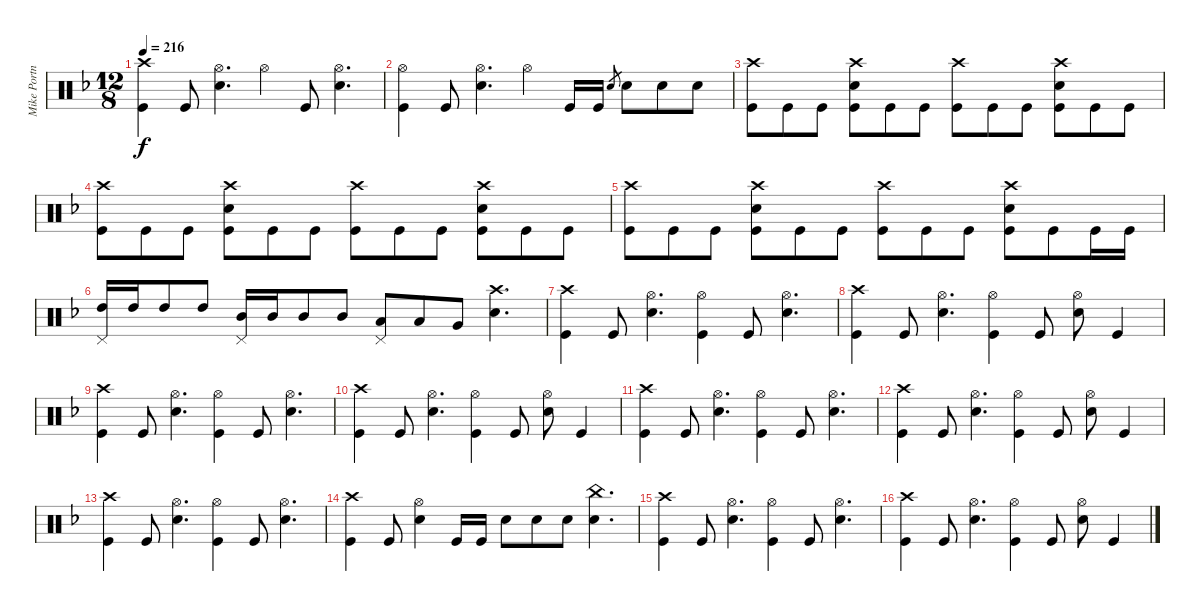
\track ("Mike Portnoy - Drums" "Mike Portn") {instrument percussion}
\staff {score}
\articulation defaults
\ts (12 8)
\tempo 216
\clef neutral
\ks dminor
("Crash high (hit)" "Kick (hit)").4{dy f} "Kick (hit)".8 ("Hi-Hat (open)" "Snare (hit) 2").4{d} "Hi-Hat (open)".4 "Kick (hit)".8 ("Hi-Hat (open)" "Snare (hit) 2").4{d} |
("Hi-Hat (open)" "Kick (hit)").4 "Kick (hit)".8 ("Hi-Hat (open)" "Snare (hit) 2").4{d} "Hi-Hat (open)".4 "Kick (hit)".16 "Kick (hit)".16 "Snare (hit) 2".8{gr} "Snare (hit) 2".8 "Snare (hit) 2".8 "Snare (hit) 2".8 |
("Crash high (hit)" "Kick (hit)").8 "Kick (hit)".8 "Kick (hit)".8 ("Crash high (hit)" "Snare (hit) 2" "Kick (hit)").8 "Kick (hit)".8 "Kick (hit)".8 ("Crash high (hit)" "Kick (hit)").8 "Kick (hit)".8 "Kick (hit)".8 ("Crash high (hit)" "Snare (hit) 2" "Kick (hit)").8 "Kick (hit)".8 "Kick (hit)".8 |
("Crash high (hit)" "Kick (hit)").8 "Kick (hit)".8 "Kick (hit)".8 ("Crash high (hit)" "Snare (hit) 2" "Kick (hit)").8 "Kick (hit)".8 "Kick (hit)".8 ("Crash high (hit)" "Kick (hit)").8 "Kick (hit)".8 "Kick (hit)".8 ("Crash high (hit)" "Snare (hit) 2" "Kick (hit)").8 "Kick (hit)".8 "Kick (hit)".8 |
("Crash high (hit)" "Kick (hit)").8 "Kick (hit)".8 "Kick (hit)".8 ("Crash high (hit)" "Snare (hit) 2" "Kick (hit)").8 "Kick (hit)".8 "Kick (hit)".8 ("Crash high (hit)" "Kick (hit)").8 "Kick (hit)".8 "Kick (hit)".8 ("Crash high (hit)" "Snare (hit) 2" "Kick (hit)").8 "Kick (hit)".8 "Kick (hit)".16 "Kick (hit)".16 |
("Pedal Hi-Hat (hit)" "High Tom (hit)").16 "High Tom (hit)".16 "High Tom (hit)".8 "High Tom (hit)".8 ("Pedal Hi-Hat (hit)" "Mid Tom (hit)").16 "Mid Tom (hit)".16 "Mid Tom (hit)".8 "Mid Tom (hit)".8 ("Pedal Hi-Hat (hit)" "Low Tom (hit)").8 "Low Tom (hit)".8 "Very Low Tom (hit)".8 ("Crash high (hit)" "Snare (hit) 2").4{d} |
("Crash high (hit)" "Kick (hit)").4 "Kick (hit)".8 ("Hi-Hat (open)" "Snare (hit) 2").4{d} ("Hi-Hat (open)" "Kick (hit)").4 "Kick (hit)".8 ("Hi-Hat (open)" "Snare (hit) 2").4{d} |
("Crash high (hit)" "Kick (hit)").4 "Kick (hit)".8 ("Hi-Hat (open)" "Snare (hit) 2").4{d} ("Hi-Hat (open)" "Kick (hit)").4 "Kick (hit)".8 ("Hi-Hat (open)" "Snare (hit) 2").8 "Kick (hit)".4 |
("Crash high (hit)" "Kick (hit)").4 "Kick (hit)".8 ("Hi-Hat (open)" "Snare (hit) 2").4{d} ("Hi-Hat (open)" "Kick (hit)").4 "Kick (hit)".8 ("Hi-Hat (open)" "Snare (hit) 2").4{d} |
("Crash high (hit)" "Kick (hit)").4 "Kick (hit)".8 ("Hi-Hat (open)" "Snare (hit) 2").4{d} ("Hi-Hat (open)" "Kick (hit)").4 "Kick (hit)".8 ("Hi-Hat (open)" "Snare (hit) 2").8 "Kick (hit)".4 |
("Crash high (hit)" "Kick (hit)").4 "Kick (hit)".8 ("Hi-Hat (open)" "Snare (hit) 2").4{d} ("Hi-Hat (open)" "Kick (hit)").4 "Kick (hit)".8 ("Hi-Hat (open)" "Snare (hit) 2").4{d} |
("Crash high (hit)" "Kick (hit)").4 "Kick (hit)".8 ("Hi-Hat (open)" "Snare (hit) 2").4{d} ("Hi-Hat (open)" "Kick (hit)").4 "Kick (hit)".8 ("Hi-Hat (open)" "Snare (hit) 2").8 "Kick (hit)".4 |
("Crash high (hit)" "Kick (hit)").4 "Kick (hit)".8 ("Hi-Hat (open)" "Snare (hit) 2").4{d} ("Hi-Hat (open)" "Kick (hit)").4 "Kick (hit)".8 ("Hi-Hat (open)" "Snare (hit) 2").4{d} |
("Crash high (hit)" "Kick (hit)").4 "Kick (hit)".8 ("Hi-Hat (open)" "Snare (hit) 2").4 "Kick (hit)".16 "Kick (hit)".16 "Snare (hit) 2".8 "Snare (hit) 2".8 "Snare (hit) 2".8 ("Snare (hit) 2" "China (hit)").4{d} |
("Crash high (hit)" "Kick (hit)").4 "Kick (hit)".8 ("Hi-Hat (open)" "Snare (hit) 2").4{d} ("Hi-Hat (open)" "Kick (hit)").4 "Kick (hit)".8 ("Hi-Hat (open)" "Snare (hit) 2").4{d} |
("Crash high (hit)" "Kick (hit)").4 "Kick (hit)".8 ("Hi-Hat (open)" "Snare (hit) 2").4{d} ("Hi-Hat (open)" "Kick (hit)").4 "Kick (hit)".8 ("Hi-Hat (open)" "Snare (hit) 2").8 "Kick (hit)".4
